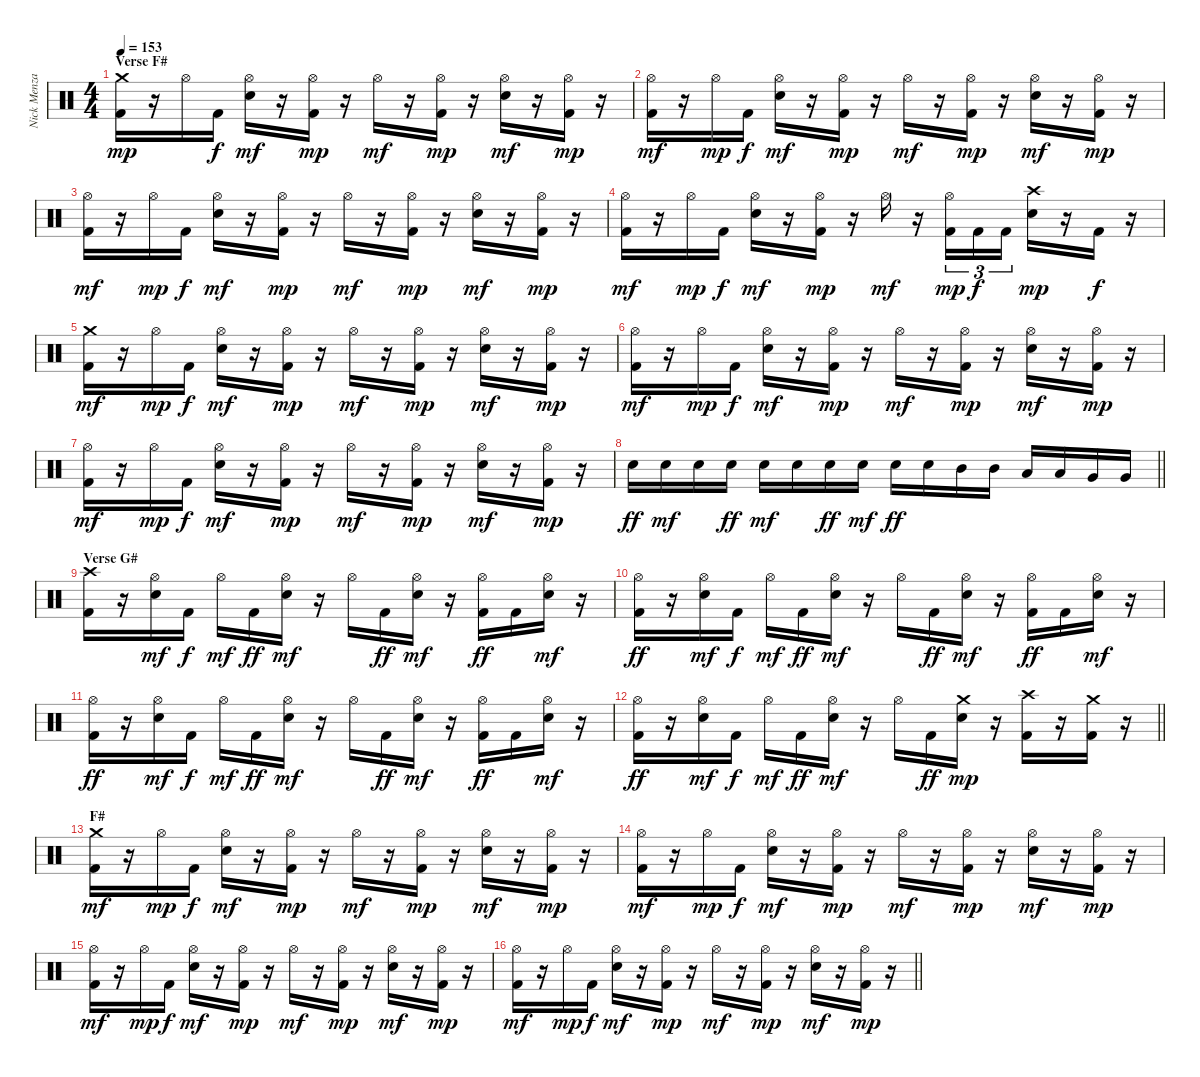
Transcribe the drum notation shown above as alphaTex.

\track ("Nick Menza" "Nick Menza") {instrument percussion}
\staff {score}
\articulation defaults
\ts (4 4)
\section ("" "Verse F#")
\tempo 153
\clef neutral
\ks c
("Crash medium (hit)" "Kick (hit) 2").16{dy mp} r.16 "Hi-Hat (open)".16 "Kick (hit) 2".16{dy f} ("Hi-Hat (open)" "Electric Snare (hit)").16{dy mf} r.16 ("Hi-Hat (open)" "Kick (hit) 2").16{dy mp} r.16 "Hi-Hat (open)".16{dy mf} r.16 ("Hi-Hat (open)" "Kick (hit) 2").16{dy mp} r.16 ("Hi-Hat (open)" "Electric Snare (hit)").16{dy mf} r.16 ("Hi-Hat (open)" "Kick (hit) 2").16{dy mp} r.16 |
("Hi-Hat (open)" "Kick (hit) 2").16{dy mf} r.16 "Hi-Hat (open)".16{dy mp} "Kick (hit) 2".16{dy f} ("Hi-Hat (open)" "Electric Snare (hit)").16{dy mf} r.16 ("Hi-Hat (open)" "Kick (hit) 2").16{dy mp} r.16 "Hi-Hat (open)".16{dy mf} r.16 ("Hi-Hat (open)" "Kick (hit) 2").16{dy mp} r.16 ("Hi-Hat (open)" "Electric Snare (hit)").16{dy mf} r.16 ("Hi-Hat (open)" "Kick (hit) 2").16{dy mp} r.16 |
("Hi-Hat (open)" "Kick (hit) 2").16{dy mf} r.16 "Hi-Hat (open)".16{dy mp} "Kick (hit) 2".16{dy f} ("Hi-Hat (open)" "Electric Snare (hit)").16{dy mf} r.16 ("Hi-Hat (open)" "Kick (hit) 2").16{dy mp} r.16 "Hi-Hat (open)".16{dy mf} r.16 ("Hi-Hat (open)" "Kick (hit) 2").16{dy mp} r.16 ("Hi-Hat (open)" "Electric Snare (hit)").16{dy mf} r.16 ("Hi-Hat (open)" "Kick (hit) 2").16{dy mp} r.16 |
("Hi-Hat (open)" "Kick (hit) 2").16{dy mf} r.16 "Hi-Hat (open)".16{dy mp} "Kick (hit) 2".16{dy f} ("Hi-Hat (open)" "Electric Snare (hit)").16{dy mf} r.16 ("Hi-Hat (open)" "Kick (hit) 2").16{dy mp} r.16 "Hi-Hat (open)".16{dy mf} r.16 ("Hi-Hat (open)" "Kick (hit) 2").16{tu (3 2) dy mp} "Kick (hit) 2".16{tu (3 2) dy f} "Kick (hit) 2".16{tu (3 2)} ("Crash high (hit)" "Electric Snare (hit)").16{dy mp} r.16 "Kick (hit) 2".16{dy f} r.16 |
("Crash medium (hit)" "Kick (hit) 2").16{dy mf} r.16 "Hi-Hat (open)".16{dy mp} "Kick (hit) 2".16{dy f} ("Hi-Hat (open)" "Electric Snare (hit)").16{dy mf} r.16 ("Hi-Hat (open)" "Kick (hit) 2").16{dy mp} r.16 "Hi-Hat (open)".16{dy mf} r.16 ("Hi-Hat (open)" "Kick (hit) 2").16{dy mp} r.16 ("Hi-Hat (open)" "Electric Snare (hit)").16{dy mf} r.16 ("Hi-Hat (open)" "Kick (hit) 2").16{dy mp} r.16 |
("Hi-Hat (open)" "Kick (hit) 2").16{dy mf} r.16 "Hi-Hat (open)".16{dy mp} "Kick (hit) 2".16{dy f} ("Hi-Hat (open)" "Electric Snare (hit)").16{dy mf} r.16 ("Hi-Hat (open)" "Kick (hit) 2").16{dy mp} r.16 "Hi-Hat (open)".16{dy mf} r.16 ("Hi-Hat (open)" "Kick (hit) 2").16{dy mp} r.16 ("Hi-Hat (open)" "Electric Snare (hit)").16{dy mf} r.16 ("Hi-Hat (open)" "Kick (hit) 2").16{dy mp} r.16 |
("Hi-Hat (open)" "Kick (hit) 2").16{dy mf} r.16 "Hi-Hat (open)".16{dy mp} "Kick (hit) 2".16{dy f} ("Hi-Hat (open)" "Electric Snare (hit)").16{dy mf} r.16 ("Hi-Hat (open)" "Kick (hit) 2").16{dy mp} r.16 "Hi-Hat (open)".16{dy mf} r.16 ("Hi-Hat (open)" "Kick (hit) 2").16{dy mp} r.16 ("Hi-Hat (open)" "Electric Snare (hit)").16{dy mf} r.16 ("Hi-Hat (open)" "Kick (hit) 2").16{dy mp} r.16 |
\barLineRight lightlight "Electric Snare (hit)".16{dy ff} "Electric Snare (hit)".16{dy mf} "Electric Snare (hit)".16 "Electric Snare (hit)".16{dy ff} "Electric Snare (hit)".16{dy mf} "Electric Snare (hit)".16 "Electric Snare (hit)".16{dy ff} "Electric Snare (hit)".16{dy mf} "Electric Snare (hit)".16{dy ff} "Electric Snare (hit)".16 "Mid Tom (hit)".16 "Mid Tom (hit)".16 "Low Tom (hit)".16 "Low Tom (hit)".16 "Very Low Tom (hit)".16 "Very Low Tom (hit)".16
|
\section ("" "Verse G#")
("Crash high (hit)" "Kick (hit) 2").16 r.16 ("Hi-Hat (open)" "Electric Snare (hit)").16{dy mf} "Kick (hit) 2".16{dy f} "Hi-Hat (open)".16{dy mf} "Kick (hit) 2".16{dy ff} ("Hi-Hat (open)" "Electric Snare (hit)").16{dy mf} r.16 "Hi-Hat (open)".16 "Kick (hit) 2".16{dy ff} ("Hi-Hat (open)" "Electric Snare (hit)").16{dy mf} r.16 ("Hi-Hat (open)" "Kick (hit) 2").16{dy ff} "Kick (hit) 2".16 ("Hi-Hat (open)" "Electric Snare (hit)").16{dy mf} r.16 |
("Hi-Hat (open)" "Kick (hit) 2").16{dy ff} r.16 ("Hi-Hat (open)" "Electric Snare (hit)").16{dy mf} "Kick (hit) 2".16{dy f} "Hi-Hat (open)".16{dy mf} "Kick (hit) 2".16{dy ff} ("Hi-Hat (open)" "Electric Snare (hit)").16{dy mf} r.16 "Hi-Hat (open)".16 "Kick (hit) 2".16{dy ff} ("Hi-Hat (open)" "Electric Snare (hit)").16{dy mf} r.16 ("Hi-Hat (open)" "Kick (hit) 2").16{dy ff} "Kick (hit) 2".16 ("Hi-Hat (open)" "Electric Snare (hit)").16{dy mf} r.16 |
("Hi-Hat (open)" "Kick (hit) 2").16{dy ff} r.16 ("Hi-Hat (open)" "Electric Snare (hit)").16{dy mf} "Kick (hit) 2".16{dy f} "Hi-Hat (open)".16{dy mf} "Kick (hit) 2".16{dy ff} ("Hi-Hat (open)" "Electric Snare (hit)").16{dy mf} r.16 "Hi-Hat (open)".16 "Kick (hit) 2".16{dy ff} ("Hi-Hat (open)" "Electric Snare (hit)").16{dy mf} r.16 ("Hi-Hat (open)" "Kick (hit) 2").16{dy ff} "Kick (hit) 2".16 ("Hi-Hat (open)" "Electric Snare (hit)").16{dy mf} r.16 |
\barLineRight lightlight
("Hi-Hat (open)" "Kick (hit) 2").16{dy ff} r.16 ("Hi-Hat (open)" "Electric Snare (hit)").16{dy mf} "Kick (hit) 2".16{dy f} "Hi-Hat (open)".16{dy mf} "Kick (hit) 2".16{dy ff} ("Hi-Hat (open)" "Electric Snare (hit)").16{dy mf} r.16 "Hi-Hat (open)".16 "Kick (hit) 2".16{dy ff} ("Crash medium (hit)" "Electric Snare (hit)").16{dy mp} r.16 ("Crash high (hit)" "Kick (hit) 2").16 r.16 ("Crash medium (hit)" "Kick (hit) 2").16 r.16 |
\section ("" "F#")
("Crash medium (hit)" "Kick (hit) 2").16{dy mf} r.16 "Hi-Hat (open)".16{dy mp} "Kick (hit) 2".16{dy f} ("Hi-Hat (open)" "Electric Snare (hit)").16{dy mf} r.16 ("Hi-Hat (open)" "Kick (hit) 2").16{dy mp} r.16 "Hi-Hat (open)".16{dy mf} r.16 ("Hi-Hat (open)" "Kick (hit) 2").16{dy mp} r.16 ("Hi-Hat (open)" "Electric Snare (hit)").16{dy mf} r.16 ("Hi-Hat (open)" "Kick (hit) 2").16{dy mp} r.16 |
("Hi-Hat (open)" "Kick (hit) 2").16{dy mf} r.16 "Hi-Hat (open)".16{dy mp} "Kick (hit) 2".16{dy f} ("Hi-Hat (open)" "Electric Snare (hit)").16{dy mf} r.16 ("Hi-Hat (open)" "Kick (hit) 2").16{dy mp} r.16 "Hi-Hat (open)".16{dy mf} r.16 ("Hi-Hat (open)" "Kick (hit) 2").16{dy mp} r.16 ("Hi-Hat (open)" "Electric Snare (hit)").16{dy mf} r.16 ("Hi-Hat (open)" "Kick (hit) 2").16{dy mp} r.16 |
("Hi-Hat (open)" "Kick (hit) 2").16{dy mf} r.16 "Hi-Hat (open)".16{dy mp} "Kick (hit) 2".16{dy f} ("Hi-Hat (open)" "Electric Snare (hit)").16{dy mf} r.16 ("Hi-Hat (open)" "Kick (hit) 2").16{dy mp} r.16 "Hi-Hat (open)".16{dy mf} r.16 ("Hi-Hat (open)" "Kick (hit) 2").16{dy mp} r.16 ("Hi-Hat (open)" "Electric Snare (hit)").16{dy mf} r.16 ("Hi-Hat (open)" "Kick (hit) 2").16{dy mp} r.16 |
\barLineRight lightlight
("Hi-Hat (open)" "Kick (hit) 2").16{dy mf} r.16 "Hi-Hat (open)".16{dy mp} "Kick (hit) 2".16{dy f} ("Hi-Hat (open)" "Electric Snare (hit)").16{dy mf} r.16 ("Hi-Hat (open)" "Kick (hit) 2").16{dy mp} r.16 "Hi-Hat (open)".16{dy mf} r.16 ("Hi-Hat (open)" "Kick (hit) 2").16{dy mp} r.16 ("Hi-Hat (open)" "Electric Snare (hit)").16{dy mf} r.16 ("Hi-Hat (open)" "Kick (hit) 2").16{dy mp} r.16
